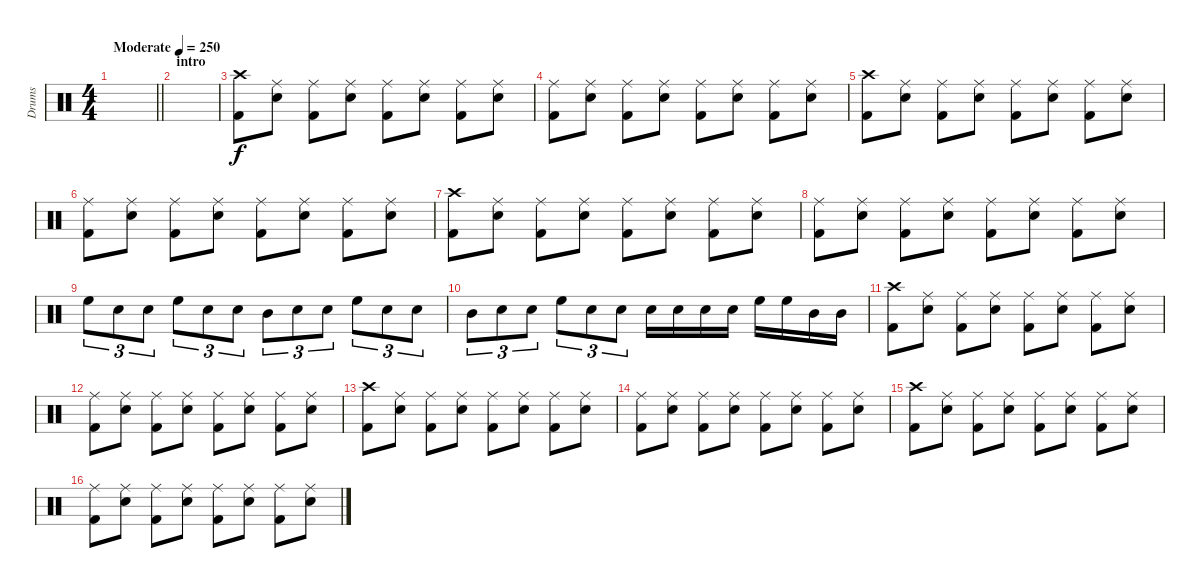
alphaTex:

\track ("Drums" "Drums") {solo instrument percussion}
\staff {score}
\articulation defaults
\ts (4 4)
\tempo (250 "Moderate")
\clef neutral
\barLineRight lightlight
\ks c
|
\section ("" "intro")
|
("Crash high (hit)" "Kick (hit) 2").8 ("Ride (middle)" "Snare (hit) 2").8 ("Ride (middle)" "Kick (hit) 2").8 ("Ride (middle)" "Snare (hit) 2").8 ("Ride (middle)" "Kick (hit) 2").8 ("Ride (middle)" "Snare (hit) 2").8 ("Ride (middle)" "Kick (hit) 2").8 ("Ride (middle)" "Snare (hit) 2").8 |
("Ride (middle)" "Kick (hit) 2").8 ("Ride (middle)" "Snare (hit) 2").8 ("Ride (middle)" "Kick (hit) 2").8 ("Ride (middle)" "Snare (hit) 2").8 ("Ride (middle)" "Kick (hit) 2").8 ("Ride (middle)" "Snare (hit) 2").8 ("Ride (middle)" "Kick (hit) 2").8 ("Ride (middle)" "Snare (hit) 2").8 |
("Crash high (hit)" "Kick (hit) 2").8 ("Ride (middle)" "Snare (hit) 2").8 ("Ride (middle)" "Kick (hit) 2").8 ("Ride (middle)" "Snare (hit) 2").8 ("Ride (middle)" "Kick (hit) 2").8 ("Ride (middle)" "Snare (hit) 2").8 ("Ride (middle)" "Kick (hit) 2").8 ("Ride (middle)" "Snare (hit) 2").8 |
("Ride (middle)" "Kick (hit) 2").8 ("Ride (middle)" "Snare (hit) 2").8 ("Ride (middle)" "Kick (hit) 2").8 ("Ride (middle)" "Snare (hit) 2").8 ("Ride (middle)" "Kick (hit) 2").8 ("Ride (middle)" "Snare (hit) 2").8 ("Ride (middle)" "Kick (hit) 2").8 ("Ride (middle)" "Snare (hit) 2").8 |
("Crash high (hit)" "Kick (hit) 2").8 ("Ride (middle)" "Snare (hit) 2").8 ("Ride (middle)" "Kick (hit) 2").8 ("Ride (middle)" "Snare (hit) 2").8 ("Ride (middle)" "Kick (hit) 2").8 ("Ride (middle)" "Snare (hit) 2").8 ("Ride (middle)" "Kick (hit) 2").8 ("Ride (middle)" "Snare (hit) 2").8 |
("Ride (middle)" "Kick (hit) 2").8 ("Ride (middle)" "Snare (hit) 2").8 ("Ride (middle)" "Kick (hit) 2").8 ("Ride (middle)" "Snare (hit) 2").8 ("Ride (middle)" "Kick (hit) 2").8 ("Ride (middle)" "Snare (hit) 2").8 ("Ride (middle)" "Kick (hit) 2").8 ("Ride (middle)" "Snare (hit) 2").8 |
"High Floor Tom (hit)".8{tu (3 2)} "Snare (hit) 2".8{tu (3 2)} "Snare (hit) 2".8{tu (3 2)} "High Floor Tom (hit)".8{tu (3 2)} "Snare (hit) 2".8{tu (3 2)} "Snare (hit) 2".8{tu (3 2)} "Mid Tom (hit)".8{tu (3 2)} "Snare (hit) 2".8{tu (3 2)} "Snare (hit) 2".8{tu (3 2)} "High Floor Tom (hit)".8{tu (3 2)} "Snare (hit) 2".8{tu (3 2)} "Snare (hit) 2".8{tu (3 2)} |
"Mid Tom (hit)".8{tu (3 2)} "Snare (hit) 2".8{tu (3 2)} "Snare (hit) 2".8{tu (3 2)} "High Floor Tom (hit)".8{tu (3 2)} "Snare (hit) 2".8{tu (3 2)} "Snare (hit) 2".8{tu (3 2)} "Snare (hit) 2".16 "Snare (hit) 2".16 "Snare (hit) 2".16 "Snare (hit) 2".16 "High Floor Tom (hit)".16 "High Floor Tom (hit)".16 "Mid Tom (hit)".16 "Mid Tom (hit)".16 |
("Crash high (hit)" "Kick (hit) 2").8 ("Ride (middle)" "Snare (hit) 2").8 ("Ride (middle)" "Kick (hit) 2").8 ("Ride (middle)" "Snare (hit) 2").8 ("Ride (middle)" "Kick (hit) 2").8 ("Ride (middle)" "Snare (hit) 2").8 ("Ride (middle)" "Kick (hit) 2").8 ("Ride (middle)" "Snare (hit) 2").8 |
("Ride (middle)" "Kick (hit) 2").8 ("Ride (middle)" "Snare (hit) 2").8 ("Ride (middle)" "Kick (hit) 2").8 ("Ride (middle)" "Snare (hit) 2").8 ("Ride (middle)" "Kick (hit) 2").8 ("Ride (middle)" "Snare (hit) 2").8 ("Ride (middle)" "Kick (hit) 2").8 ("Ride (middle)" "Snare (hit) 2").8 |
("Crash high (hit)" "Kick (hit) 2").8 ("Ride (middle)" "Snare (hit) 2").8 ("Ride (middle)" "Kick (hit) 2").8 ("Ride (middle)" "Snare (hit) 2").8 ("Ride (middle)" "Kick (hit) 2").8 ("Ride (middle)" "Snare (hit) 2").8 ("Ride (middle)" "Kick (hit) 2").8 ("Ride (middle)" "Snare (hit) 2").8 |
("Ride (middle)" "Kick (hit) 2").8 ("Ride (middle)" "Snare (hit) 2").8 ("Ride (middle)" "Kick (hit) 2").8 ("Ride (middle)" "Snare (hit) 2").8 ("Ride (middle)" "Kick (hit) 2").8 ("Ride (middle)" "Snare (hit) 2").8 ("Ride (middle)" "Kick (hit) 2").8 ("Ride (middle)" "Snare (hit) 2").8 |
("Crash high (hit)" "Kick (hit) 2").8 ("Ride (middle)" "Snare (hit) 2").8 ("Ride (middle)" "Kick (hit) 2").8 ("Ride (middle)" "Snare (hit) 2").8 ("Ride (middle)" "Kick (hit) 2").8 ("Ride (middle)" "Snare (hit) 2").8 ("Ride (middle)" "Kick (hit) 2").8 ("Ride (middle)" "Snare (hit) 2").8 |
("Ride (middle)" "Kick (hit) 2").8 ("Ride (middle)" "Snare (hit) 2").8 ("Ride (middle)" "Kick (hit) 2").8 ("Ride (middle)" "Snare (hit) 2").8 ("Ride (middle)" "Kick (hit) 2").8 ("Ride (middle)" "Snare (hit) 2").8 ("Ride (middle)" "Kick (hit) 2").8 ("Ride (middle)" "Snare (hit) 2").8
